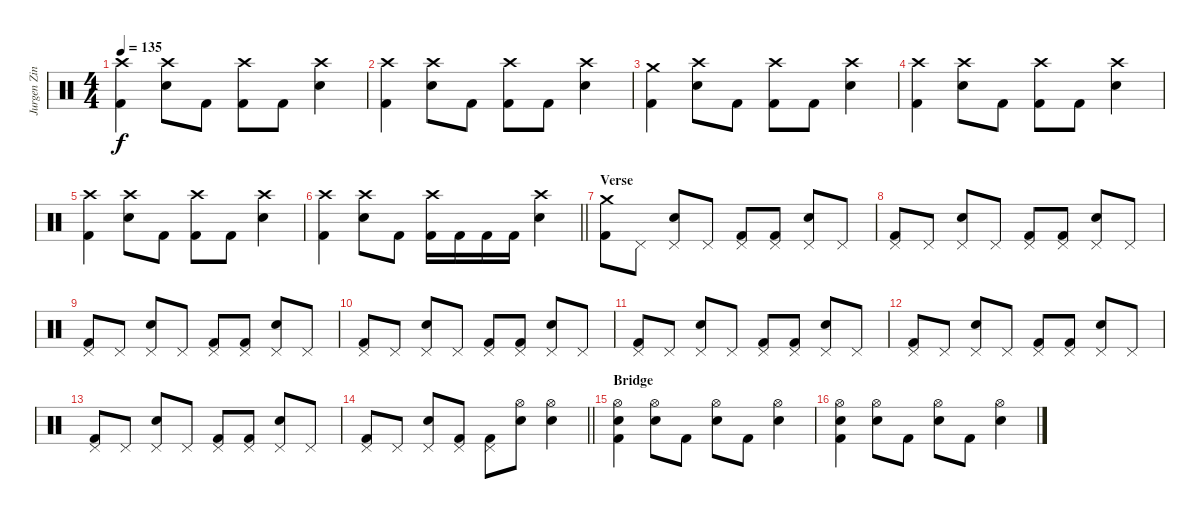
\track ("Jurgen Zing" "Jurgen Zin") {instrument percussion}
\staff {score}
\articulation defaults
\ts (4 4)
\tempo 135
\clef neutral
\ks c
("Crash high (hit)" "Kick (hit) 2").4{dy f} ("Crash high (hit)" "Electric Snare (hit)").8 "Kick (hit) 2".8 ("Crash high (hit)" "Kick (hit) 2").8 "Kick (hit) 2".8 ("Crash high (hit)" "Electric Snare (hit)").4 |
("Crash high (hit)" "Kick (hit) 2").4 ("Crash high (hit)" "Electric Snare (hit)").8 "Kick (hit) 2".8 ("Crash high (hit)" "Kick (hit) 2").8 "Kick (hit) 2".8 ("Crash high (hit)" "Electric Snare (hit)").4 |
("Crash medium (hit)" "Kick (hit) 2").4 ("Crash high (hit)" "Electric Snare (hit)").8 "Kick (hit) 2".8 ("Crash high (hit)" "Kick (hit) 2").8 "Kick (hit) 2".8 ("Crash high (hit)" "Electric Snare (hit)").4 |
("Crash high (hit)" "Kick (hit) 2").4 ("Crash high (hit)" "Electric Snare (hit)").8 "Kick (hit) 2".8 ("Crash high (hit)" "Kick (hit) 2").8 "Kick (hit) 2".8 ("Crash high (hit)" "Electric Snare (hit)").4 |
("Crash high (hit)" "Kick (hit) 2").4 ("Crash high (hit)" "Electric Snare (hit)").8 "Kick (hit) 2".8 ("Crash high (hit)" "Kick (hit) 2").8 "Kick (hit) 2".8 ("Crash high (hit)" "Electric Snare (hit)").4 |
\barLineRight lightlight
("Crash high (hit)" "Kick (hit) 2").4 ("Crash high (hit)" "Electric Snare (hit)").8 "Kick (hit) 2".8 ("Crash high (hit)" "Kick (hit) 2").16 "Kick (hit) 2".16 "Kick (hit) 2".16 "Kick (hit) 2".16 ("Crash high (hit)" "Electric Snare (hit)").4 |
\section ("" "Verse")
("Crash medium (hit)" "Kick (hit) 2").8 "Pedal Hi-Hat (hit)".8 ("Pedal Hi-Hat (hit)" "Electric Snare (hit)").8 "Pedal Hi-Hat (hit)".8 ("Pedal Hi-Hat (hit)" "Kick (hit) 2").8 ("Pedal Hi-Hat (hit)" "Kick (hit) 2").8 ("Pedal Hi-Hat (hit)" "Electric Snare (hit)").8 "Pedal Hi-Hat (hit)".8 |
("Pedal Hi-Hat (hit)" "Kick (hit) 2").8 "Pedal Hi-Hat (hit)".8 ("Pedal Hi-Hat (hit)" "Electric Snare (hit)").8 "Pedal Hi-Hat (hit)".8 ("Pedal Hi-Hat (hit)" "Kick (hit) 2").8 ("Pedal Hi-Hat (hit)" "Kick (hit) 2").8 ("Pedal Hi-Hat (hit)" "Electric Snare (hit)").8 "Pedal Hi-Hat (hit)".8 |
("Pedal Hi-Hat (hit)" "Kick (hit) 2").8 "Pedal Hi-Hat (hit)".8 ("Pedal Hi-Hat (hit)" "Electric Snare (hit)").8 "Pedal Hi-Hat (hit)".8 ("Pedal Hi-Hat (hit)" "Kick (hit) 2").8 ("Pedal Hi-Hat (hit)" "Kick (hit) 2").8 ("Pedal Hi-Hat (hit)" "Electric Snare (hit)").8 "Pedal Hi-Hat (hit)".8 |
("Pedal Hi-Hat (hit)" "Kick (hit) 2").8 "Pedal Hi-Hat (hit)".8 ("Pedal Hi-Hat (hit)" "Electric Snare (hit)").8 "Pedal Hi-Hat (hit)".8 ("Pedal Hi-Hat (hit)" "Kick (hit) 2").8 ("Pedal Hi-Hat (hit)" "Kick (hit) 2").8 ("Pedal Hi-Hat (hit)" "Electric Snare (hit)").8 "Pedal Hi-Hat (hit)".8 |
("Pedal Hi-Hat (hit)" "Kick (hit) 2").8 "Pedal Hi-Hat (hit)".8 ("Pedal Hi-Hat (hit)" "Electric Snare (hit)").8 "Pedal Hi-Hat (hit)".8 ("Pedal Hi-Hat (hit)" "Kick (hit) 2").8 ("Pedal Hi-Hat (hit)" "Kick (hit) 2").8 ("Pedal Hi-Hat (hit)" "Electric Snare (hit)").8 "Pedal Hi-Hat (hit)".8 |
("Pedal Hi-Hat (hit)" "Kick (hit) 2").8 "Pedal Hi-Hat (hit)".8 ("Pedal Hi-Hat (hit)" "Electric Snare (hit)").8 "Pedal Hi-Hat (hit)".8 ("Pedal Hi-Hat (hit)" "Kick (hit) 2").8 ("Pedal Hi-Hat (hit)" "Kick (hit) 2").8 ("Pedal Hi-Hat (hit)" "Electric Snare (hit)").8 "Pedal Hi-Hat (hit)".8 |
("Pedal Hi-Hat (hit)" "Kick (hit) 2").8 "Pedal Hi-Hat (hit)".8 ("Pedal Hi-Hat (hit)" "Electric Snare (hit)").8 "Pedal Hi-Hat (hit)".8 ("Pedal Hi-Hat (hit)" "Kick (hit) 2").8 ("Pedal Hi-Hat (hit)" "Kick (hit) 2").8 ("Pedal Hi-Hat (hit)" "Electric Snare (hit)").8 "Pedal Hi-Hat (hit)".8 |
\barLineRight lightlight
("Pedal Hi-Hat (hit)" "Kick (hit) 2").8 "Pedal Hi-Hat (hit)".8 ("Pedal Hi-Hat (hit)" "Electric Snare (hit)").8 ("Pedal Hi-Hat (hit)" "Kick (hit) 2").8 ("Pedal Hi-Hat (hit)" "Kick (hit) 2").8 ("Hi-Hat (open)" "Electric Snare (hit)").8 ("Hi-Hat (open)" "Electric Snare (hit)").4 |
\section ("" "Bridge")
("Hi-Hat (open)" "Electric Snare (hit)" "Kick (hit) 2").4 ("Hi-Hat (open)" "Electric Snare (hit)").8 "Kick (hit) 2".8 ("Hi-Hat (open)" "Electric Snare (hit)").8 "Kick (hit) 2".8 ("Hi-Hat (open)" "Electric Snare (hit)").4 |
("Hi-Hat (open)" "Electric Snare (hit)" "Kick (hit) 2").4 ("Hi-Hat (open)" "Electric Snare (hit)").8 "Kick (hit) 2".8 ("Hi-Hat (open)" "Electric Snare (hit)").8 "Kick (hit) 2".8 ("Hi-Hat (open)" "Electric Snare (hit)").4
